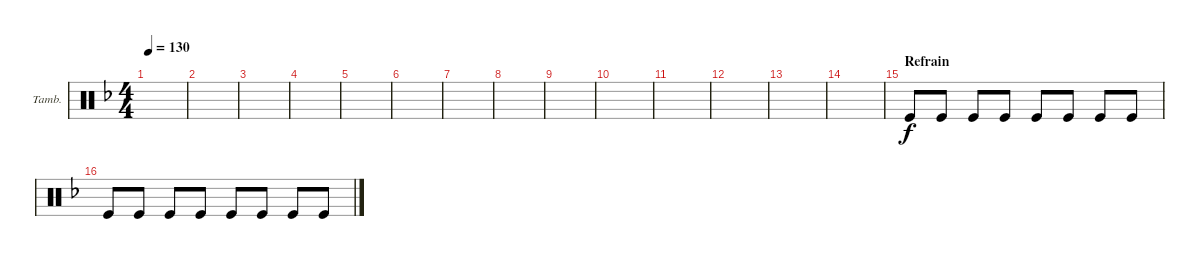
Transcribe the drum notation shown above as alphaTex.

\defaultSystemsLayout 4
\bracketExtendMode groupsimilarinstruments
\firstSystemTrackNameOrientation horizontal
\otherSystemsTrackNameOrientation horizontal
\track ("Tambourine" "Tamb.") {instrument percussion}
\staff {score}
\articulation defaults
\ts (4 4)
\tempo 130
\clef neutral
\ks dminor
|
|
|
|
|
|
|
|
|
|
|
|
|
|
\section ("" "Refrain")
"Kick (hit)".8 "Kick (hit)".8 "Kick (hit)".8 "Kick (hit)".8 "Kick (hit)".8 "Kick (hit)".8 "Kick (hit)".8 "Kick (hit)".8 |
"Kick (hit)".8 "Kick (hit)".8 "Kick (hit)".8 "Kick (hit)".8 "Kick (hit)".8 "Kick (hit)".8 "Kick (hit)".8 "Kick (hit)".8
